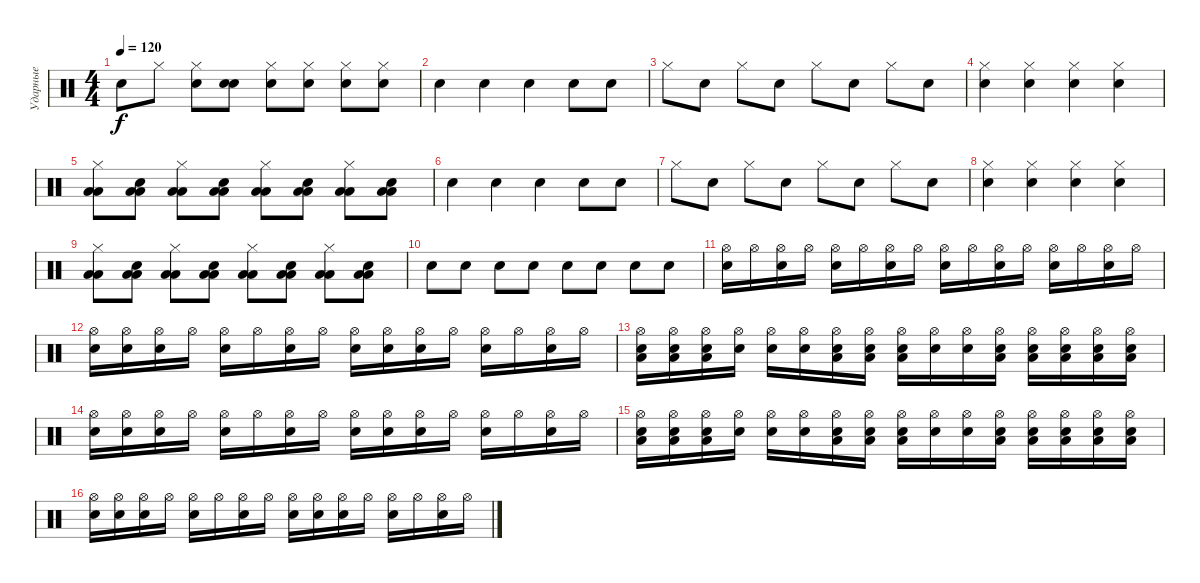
\track ("Ударные" "Ударные") {instrument percussion}
\staff {score}
\articulation defaults
\ts (4 4)
\tempo 120
\clef neutral
\ks c "Electric Snare (hit)".8{dy f} "Hi-Hat (closed)".8
("Hi-Hat (closed)" "Electric Snare (hit)").8 ("Electric Snare (hit)" "Electric Snare (hit)").8 ("Hi-Hat (closed)" "Electric Snare (hit)").8 ("Hi-Hat (closed)" "Electric Snare (hit)").8 ("Hi-Hat (closed)" "Electric Snare (hit)").8 ("Hi-Hat (closed)" "Electric Snare (hit)").8 |
"Electric Snare (hit)".4 "Electric Snare (hit)".4 "Electric Snare (hit)".4 "Electric Snare (hit)".8 "Electric Snare (hit)".8 |
"Hi-Hat (closed)".8 "Electric Snare (hit)".8 "Hi-Hat (closed)".8 "Electric Snare (hit)".8 "Hi-Hat (closed)".8 "Electric Snare (hit)".8 "Hi-Hat (closed)".8 "Electric Snare (hit)".8 |
("Electric Snare (hit)" "Hi-Hat (closed)").4 ("Electric Snare (hit)" "Hi-Hat (closed)").4 ("Electric Snare (hit)" "Hi-Hat (closed)").4 ("Electric Snare (hit)" "Hi-Hat (closed)").4 |
("Low Floor Tom (hit)" "Hi-Hat (closed)" "Low Floor Tom (hit)").8 ("Low Floor Tom (hit)" "Electric Snare (hit)" "Low Floor Tom (hit)").8 ("Low Floor Tom (hit)" "Hi-Hat (closed)" "Low Floor Tom (hit)").8 ("Low Floor Tom (hit)" "Electric Snare (hit)" "Low Floor Tom (hit)").8 ("Low Floor Tom (hit)" "Hi-Hat (closed)" "Low Floor Tom (hit)").8 ("Low Floor Tom (hit)" "Electric Snare (hit)" "Low Floor Tom (hit)").8 ("Low Floor Tom (hit)" "Hi-Hat (closed)" "Low Floor Tom (hit)").8 ("Low Floor Tom (hit)" "Electric Snare (hit)" "Low Floor Tom (hit)").8 |
"Electric Snare (hit)".4 "Electric Snare (hit)".4 "Electric Snare (hit)".4 "Electric Snare (hit)".8 "Electric Snare (hit)".8 |
"Hi-Hat (closed)".8 "Electric Snare (hit)".8 "Hi-Hat (closed)".8 "Electric Snare (hit)".8 "Hi-Hat (closed)".8 "Electric Snare (hit)".8 "Hi-Hat (closed)".8 "Electric Snare (hit)".8 |
("Electric Snare (hit)" "Hi-Hat (closed)").4 ("Electric Snare (hit)" "Hi-Hat (closed)").4 ("Electric Snare (hit)" "Hi-Hat (closed)").4 ("Electric Snare (hit)" "Hi-Hat (closed)").4 |
("Low Floor Tom (hit)" "Hi-Hat (closed)" "Low Floor Tom (hit)").8 ("Low Floor Tom (hit)" "Electric Snare (hit)" "Low Floor Tom (hit)").8 ("Low Floor Tom (hit)" "Hi-Hat (closed)" "Low Floor Tom (hit)").8 ("Low Floor Tom (hit)" "Electric Snare (hit)" "Low Floor Tom (hit)").8 ("Low Floor Tom (hit)" "Hi-Hat (closed)" "Low Floor Tom (hit)").8 ("Low Floor Tom (hit)" "Electric Snare (hit)" "Low Floor Tom (hit)").8 ("Low Floor Tom (hit)" "Hi-Hat (closed)" "Low Floor Tom (hit)").8 ("Low Floor Tom (hit)" "Electric Snare (hit)" "Low Floor Tom (hit)").8 |
"Electric Snare (hit)".8 "Electric Snare (hit)".8 "Electric Snare (hit)".8 "Electric Snare (hit)".8 "Electric Snare (hit)".8 "Electric Snare (hit)".8 "Electric Snare (hit)".8 "Electric Snare (hit)".8 |
("Electric Snare (hit)" "Hi-Hat (open)").16 "Hi-Hat (open)".16 ("Electric Snare (hit)" "Hi-Hat (open)").16 "Hi-Hat (open)".16 ("Electric Snare (hit)" "Hi-Hat (open)").16 "Hi-Hat (open)".16 ("Electric Snare (hit)" "Hi-Hat (open)").16 "Hi-Hat (open)".16 ("Electric Snare (hit)" "Hi-Hat (open)").16 "Hi-Hat (open)".16 ("Electric Snare (hit)" "Hi-Hat (open)").16 "Hi-Hat (open)".16 ("Electric Snare (hit)" "Hi-Hat (open)").16 "Hi-Hat (open)".16 ("Electric Snare (hit)" "Hi-Hat (open)").16 "Hi-Hat (open)".16 |
("Electric Snare (hit)" "Hi-Hat (open)").16 ("Electric Snare (hit)" "Hi-Hat (open)").16 ("Electric Snare (hit)" "Hi-Hat (open)").16 "Hi-Hat (open)".16 ("Electric Snare (hit)" "Hi-Hat (open)").16 "Hi-Hat (open)".16 ("Electric Snare (hit)" "Hi-Hat (open)").16 "Hi-Hat (open)".16 ("Electric Snare (hit)" "Hi-Hat (open)").16 ("Electric Snare (hit)" "Hi-Hat (open)").16 ("Electric Snare (hit)" "Hi-Hat (open)").16 "Hi-Hat (open)".16 ("Electric Snare (hit)" "Hi-Hat (open)").16 "Hi-Hat (open)".16 ("Electric Snare (hit)" "Hi-Hat (open)").16 "Hi-Hat (open)".16 |
("Low Floor Tom (hit)" "Electric Snare (hit)" "Hi-Hat (open)").16 ("Low Floor Tom (hit)" "Electric Snare (hit)" "Hi-Hat (open)").16 ("Low Floor Tom (hit)" "Electric Snare (hit)" "Hi-Hat (open)").16 ("Electric Snare (hit)" "Hi-Hat (open)").16 ("Electric Snare (hit)" "Hi-Hat (open)").16 ("Electric Snare (hit)" "Hi-Hat (open)").16 ("Low Floor Tom (hit)" "Electric Snare (hit)" "Hi-Hat (open)").16 ("Low Floor Tom (hit)" "Electric Snare (hit)" "Hi-Hat (open)").16 ("Low Floor Tom (hit)" "Electric Snare (hit)" "Hi-Hat (open)").16 ("Electric Snare (hit)" "Hi-Hat (open)").16 ("Electric Snare (hit)" "Hi-Hat (open)").16 ("Low Floor Tom (hit)" "Electric Snare (hit)" "Hi-Hat (open)").16 ("Low Floor Tom (hit)" "Electric Snare (hit)" "Hi-Hat (open)").16 ("Low Floor Tom (hit)" "Electric Snare (hit)" "Hi-Hat (open)").16 ("Low Floor Tom (hit)" "Electric Snare (hit)" "Hi-Hat (open)").16 ("Low Floor Tom (hit)" "Electric Snare (hit)" "Hi-Hat (open)").16 |
("Electric Snare (hit)" "Hi-Hat (open)").16 ("Electric Snare (hit)" "Hi-Hat (open)").16 ("Electric Snare (hit)" "Hi-Hat (open)").16 "Hi-Hat (open)".16 ("Electric Snare (hit)" "Hi-Hat (open)").16 "Hi-Hat (open)".16 ("Electric Snare (hit)" "Hi-Hat (open)").16 "Hi-Hat (open)".16 ("Electric Snare (hit)" "Hi-Hat (open)").16 ("Electric Snare (hit)" "Hi-Hat (open)").16 ("Electric Snare (hit)" "Hi-Hat (open)").16 "Hi-Hat (open)".16 ("Electric Snare (hit)" "Hi-Hat (open)").16 "Hi-Hat (open)".16 ("Electric Snare (hit)" "Hi-Hat (open)").16 "Hi-Hat (open)".16 |
("Low Floor Tom (hit)" "Electric Snare (hit)" "Hi-Hat (open)").16 ("Low Floor Tom (hit)" "Electric Snare (hit)" "Hi-Hat (open)").16 ("Low Floor Tom (hit)" "Electric Snare (hit)" "Hi-Hat (open)").16 ("Electric Snare (hit)" "Hi-Hat (open)").16 ("Electric Snare (hit)" "Hi-Hat (open)").16 ("Electric Snare (hit)" "Hi-Hat (open)").16 ("Low Floor Tom (hit)" "Electric Snare (hit)" "Hi-Hat (open)").16 ("Low Floor Tom (hit)" "Electric Snare (hit)" "Hi-Hat (open)").16 ("Low Floor Tom (hit)" "Electric Snare (hit)" "Hi-Hat (open)").16 ("Electric Snare (hit)" "Hi-Hat (open)").16 ("Electric Snare (hit)" "Hi-Hat (open)").16 ("Low Floor Tom (hit)" "Electric Snare (hit)" "Hi-Hat (open)").16 ("Low Floor Tom (hit)" "Electric Snare (hit)" "Hi-Hat (open)").16 ("Low Floor Tom (hit)" "Electric Snare (hit)" "Hi-Hat (open)").16 ("Low Floor Tom (hit)" "Electric Snare (hit)" "Hi-Hat (open)").16 ("Low Floor Tom (hit)" "Electric Snare (hit)" "Hi-Hat (open)").16 |
("Electric Snare (hit)" "Hi-Hat (open)").16 ("Electric Snare (hit)" "Hi-Hat (open)").16 ("Electric Snare (hit)" "Hi-Hat (open)").16 "Hi-Hat (open)".16 ("Electric Snare (hit)" "Hi-Hat (open)").16 "Hi-Hat (open)".16 ("Electric Snare (hit)" "Hi-Hat (open)").16 "Hi-Hat (open)".16 ("Electric Snare (hit)" "Hi-Hat (open)").16 ("Electric Snare (hit)" "Hi-Hat (open)").16 ("Electric Snare (hit)" "Hi-Hat (open)").16 "Hi-Hat (open)".16 ("Electric Snare (hit)" "Hi-Hat (open)").16 "Hi-Hat (open)".16 ("Electric Snare (hit)" "Hi-Hat (open)").16 "Hi-Hat (open)".16
